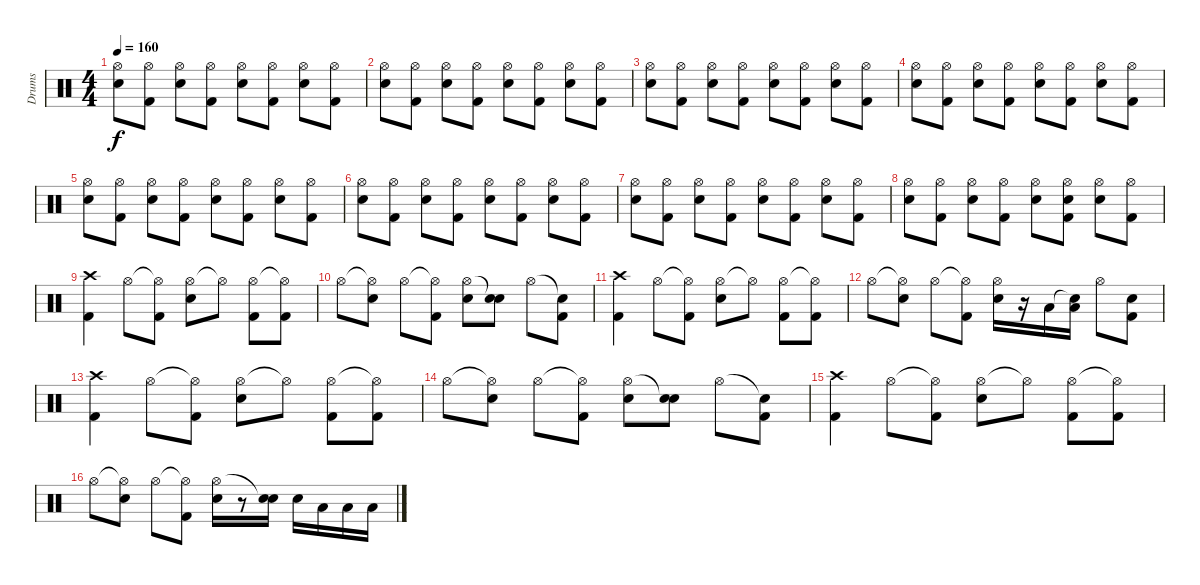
\track ("Drums" "Drums") {instrument percussion}
\staff {score}
\articulation defaults
\ts (4 4)
\tempo 160
\clef neutral
\ks c
("Hi-Hat (open)" "Snare (hit) 2").8{dy f} ("Hi-Hat (open)" "Kick (hit) 2").8 ("Hi-Hat (open)" "Snare (hit) 2").8 ("Hi-Hat (open)" "Kick (hit) 2").8 ("Hi-Hat (open)" "Snare (hit) 2").8 ("Hi-Hat (open)" "Kick (hit) 2").8 ("Hi-Hat (open)" "Snare (hit) 2").8 ("Hi-Hat (open)" "Kick (hit) 2").8 |
("Hi-Hat (open)" "Snare (hit) 2").8 ("Hi-Hat (open)" "Kick (hit) 2").8 ("Hi-Hat (open)" "Snare (hit) 2").8 ("Hi-Hat (open)" "Kick (hit) 2").8 ("Hi-Hat (open)" "Snare (hit) 2").8 ("Hi-Hat (open)" "Kick (hit) 2").8 ("Hi-Hat (open)" "Snare (hit) 2").8 ("Hi-Hat (open)" "Kick (hit) 2").8 |
("Hi-Hat (open)" "Snare (hit) 2").8 ("Hi-Hat (open)" "Kick (hit) 2").8 ("Hi-Hat (open)" "Snare (hit) 2").8 ("Hi-Hat (open)" "Kick (hit) 2").8 ("Hi-Hat (open)" "Snare (hit) 2").8 ("Hi-Hat (open)" "Kick (hit) 2").8 ("Hi-Hat (open)" "Snare (hit) 2").8 ("Hi-Hat (open)" "Kick (hit) 2").8 |
("Hi-Hat (open)" "Snare (hit) 2").8 ("Hi-Hat (open)" "Kick (hit) 2").8 ("Hi-Hat (open)" "Snare (hit) 2").8 ("Hi-Hat (open)" "Kick (hit) 2").8 ("Hi-Hat (open)" "Snare (hit) 2").8 ("Hi-Hat (open)" "Kick (hit) 2").8 ("Hi-Hat (open)" "Snare (hit) 2").8 ("Hi-Hat (open)" "Kick (hit) 2").8 |
("Hi-Hat (open)" "Snare (hit) 2").8 ("Hi-Hat (open)" "Kick (hit) 2").8 ("Hi-Hat (open)" "Snare (hit) 2").8 ("Hi-Hat (open)" "Kick (hit) 2").8 ("Hi-Hat (open)" "Snare (hit) 2").8 ("Hi-Hat (open)" "Kick (hit) 2").8 ("Hi-Hat (open)" "Snare (hit) 2").8 ("Hi-Hat (open)" "Kick (hit) 2").8 |
("Hi-Hat (open)" "Snare (hit) 2").8 ("Hi-Hat (open)" "Kick (hit) 2").8 ("Hi-Hat (open)" "Snare (hit) 2").8 ("Hi-Hat (open)" "Kick (hit) 2").8 ("Hi-Hat (open)" "Snare (hit) 2").8 ("Hi-Hat (open)" "Kick (hit) 2").8 ("Hi-Hat (open)" "Snare (hit) 2").8 ("Hi-Hat (open)" "Kick (hit) 2").8 |
("Hi-Hat (open)" "Snare (hit) 2").8 ("Hi-Hat (open)" "Kick (hit) 2").8 ("Hi-Hat (open)" "Snare (hit) 2").8 ("Hi-Hat (open)" "Kick (hit) 2").8 ("Hi-Hat (open)" "Snare (hit) 2").8 ("Hi-Hat (open)" "Kick (hit) 2").8 ("Hi-Hat (open)" "Snare (hit) 2").8 ("Hi-Hat (open)" "Kick (hit) 2").8 |
("Hi-Hat (open)" "Snare (hit) 2").8 ("Hi-Hat (open)" "Kick (hit) 2").8 ("Hi-Hat (open)" "Snare (hit) 2").8 ("Hi-Hat (open)" "Kick (hit) 2").8 ("Hi-Hat (open)" "Snare (hit) 2").8 ("Hi-Hat (open)" "Snare (hit) 2"{tr (38 32)} "Kick (hit) 2").8 ("Hi-Hat (open)" "Snare (hit) 2").8 ("Hi-Hat (open)" "Kick (hit) 2").8 |
("Crash high (hit)" "Kick (hit) 2").4 "Hi-Hat (open)".8 ("Hi-Hat (open)"{t} "Kick (hit) 2").8 ("Hi-Hat (open)" "Snare (hit) 2").8 "Hi-Hat (open)"{t}.8 ("Hi-Hat (open)" "Kick (hit) 2").8 ("Hi-Hat (open)"{t} "Kick (hit) 2").8 |
"Hi-Hat (open)".8 ("Hi-Hat (open)"{t} "Snare (hit) 2").8 "Hi-Hat (open)".8 ("Hi-Hat (open)"{t} "Kick (hit) 2").8 ("Hi-Hat (open)" "Snare (hit) 2").8 ("Snare (hit)"{t} "Snare (hit) 2").8 "Hi-Hat (open)".8 ("Snare (hit)"{t} "Kick (hit) 2").8 |
("Crash high (hit)" "Kick (hit) 2").4 "Hi-Hat (open)".8 ("Hi-Hat (open)"{t} "Kick (hit) 2").8 ("Hi-Hat (open)" "Snare (hit) 2").8 "Hi-Hat (open)"{t}.8 ("Hi-Hat (open)" "Kick (hit) 2").8 ("Hi-Hat (open)"{t} "Kick (hit) 2").8 |
"Hi-Hat (open)".8 ("Hi-Hat (open)"{t} "Snare (hit) 2").8 "Hi-Hat (open)".8 ("Hi-Hat (open)"{t} "Kick (hit) 2").8 ("Hi-Hat (open)" "Snare (hit) 2").16 r.16 "Low Tom (hit)".16 ("Snare (hit)"{t} "Low Floor Tom (hit)").16 "Hi-Hat (open)".8 ("Snare (hit) 2" "Kick (hit) 2").8 |
("Crash high (hit)" "Kick (hit) 2").4 "Hi-Hat (open)".8 ("Hi-Hat (open)"{t} "Kick (hit) 2").8 ("Hi-Hat (open)" "Snare (hit) 2").8 "Hi-Hat (open)"{t}.8 ("Hi-Hat (open)" "Kick (hit) 2").8 ("Hi-Hat (open)"{t} "Kick (hit) 2").8 |
"Hi-Hat (open)".8 ("Hi-Hat (open)"{t} "Snare (hit) 2").8 "Hi-Hat (open)".8 ("Hi-Hat (open)"{t} "Kick (hit) 2").8 ("Hi-Hat (open)" "Snare (hit) 2").8 ("Snare (hit)"{t} "Snare (hit) 2").8 "Hi-Hat (open)".8 ("Snare (hit)"{t} "Kick (hit) 2").8 |
("Crash high (hit)" "Kick (hit) 2").4 "Hi-Hat (open)".8 ("Hi-Hat (open)"{t} "Kick (hit) 2").8 ("Hi-Hat (open)" "Snare (hit) 2").8 "Hi-Hat (open)"{t}.8 ("Hi-Hat (open)" "Kick (hit) 2").8 ("Hi-Hat (open)"{t} "Kick (hit) 2").8 |
"Hi-Hat (open)".8 ("Hi-Hat (open)"{t} "Snare (hit) 2").8 "Hi-Hat (open)".8 ("Hi-Hat (open)"{t} "Kick (hit) 2").8 ("Hi-Hat (open)" "Snare (hit) 2").16 r.8 ("Snare (hit)"{t} "Snare (hit) 2").16 "Snare (hit) 2".16 "Low Tom (hit)".16 "Low Tom (hit)".16 "Low Floor Tom (hit)".16
